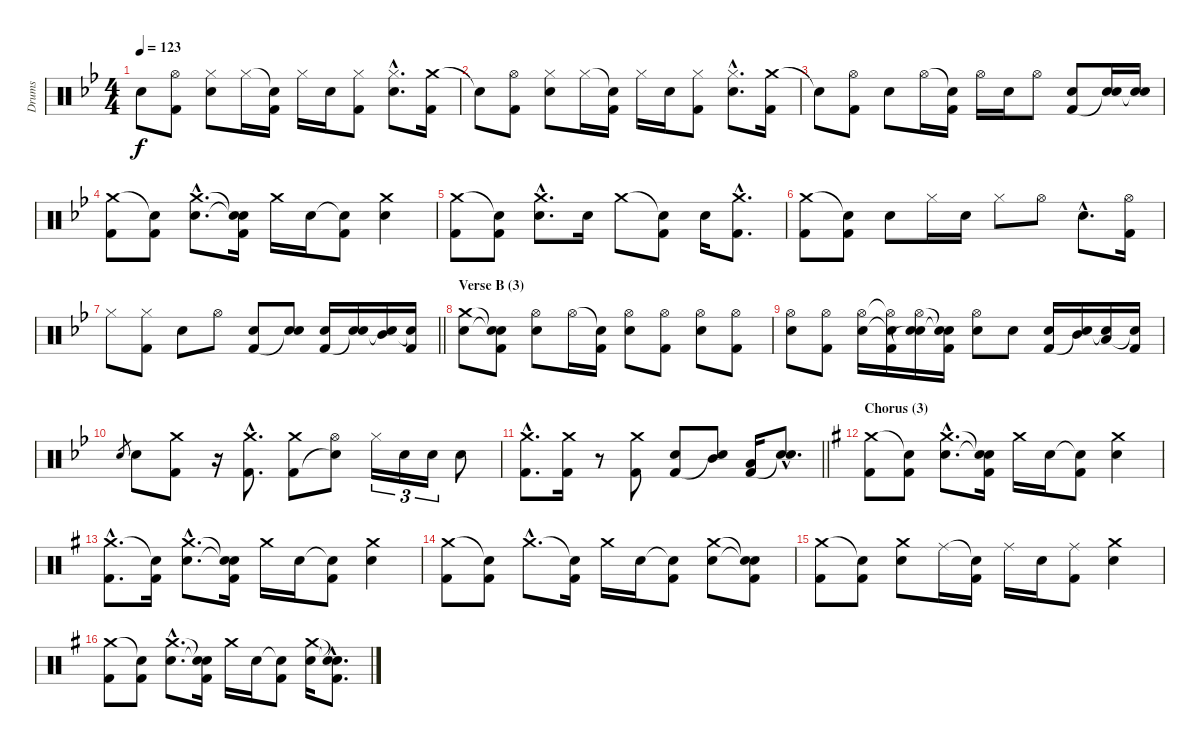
\track ("Drums" "Drums") {instrument percussion}
\staff {score}
\articulation defaults
\ts (4 4)
\tempo 123
\clef neutral
\ks gminor "Snare (hit)"{t}.8{dy f}
("Hi-Hat (open)" "Kick (hit) 2").8 ("Hi-Hat (closed)" "Electric Snare (hit)").8 "Hi-Hat (closed)".16 ("Snare (hit)"{t} "Kick (hit) 2").16 "Hi-Hat (closed)".16 "Electric Snare (hit)".16 ("Hi-Hat (closed)" "Kick (hit) 2").8 ("Hi-Hat (closed)"{hac} "Electric Snare (hit)"{hac}).8{d} ("Crash medium (hit)" "Kick (hit) 2").16 |
"Snare (hit)"{t}.8 ("Hi-Hat (open)" "Kick (hit) 2").8 ("Hi-Hat (closed)" "Electric Snare (hit)").8 "Hi-Hat (closed)".16 ("Snare (hit)"{t} "Kick (hit) 2").16 "Hi-Hat (closed)".16 "Electric Snare (hit)".16 ("Hi-Hat (closed)" "Kick (hit) 2").8 ("Hi-Hat (closed)"{hac} "Electric Snare (hit)"{hac}).8{d} ("Crash medium (hit)" "Kick (hit) 2").16 |
"Snare (hit)"{t}.8 ("Hi-Hat (open)" "Kick (hit) 2").8 "Electric Snare (hit)".8 "Hi-Hat (open)".16 ("Snare (hit)"{t} "Kick (hit) 2").16 "Hi-Hat (open)".16 "Electric Snare (hit)".16 "Hi-Hat (open)".8 ("Electric Snare (hit)" "Kick (hit) 2").8 ("Electric Snare (hit)" "Snare (hit)"{t}).16 ("Electric Snare (hit)" "Snare (hit)"{t}).16 |
("Crash medium (hit)" "Kick (hit) 2").8 ("Snare (hit)"{t} "Kick (hit) 2").8 ("Crash medium (hit)"{hac} "Electric Snare (hit)"{hac}).8{d} ("Snare (hit)"{t} "Snare (hit)"{t} "Kick (hit) 2").16 "Crash medium (hit)".16 "Electric Snare (hit)".16 ("Snare (hit)"{t} "Kick (hit) 2").8 ("Crash medium (hit)" "Electric Snare (hit)").4 |
("Crash medium (hit)" "Kick (hit) 2").8 ("Snare (hit)"{t} "Kick (hit) 2").8 ("Crash medium (hit)"{hac} "Electric Snare (hit)"{hac}).8{d} "Electric Snare (hit)".16 "Crash medium (hit)".8 ("Snare (hit)"{t} "Kick (hit) 2").8 "Electric Snare (hit)".16 ("Crash medium (hit)"{hac} "Kick (hit) 2"{hac}).8{d} |
("Crash medium (hit)" "Kick (hit) 2").8 ("Snare (hit)"{t} "Kick (hit) 2").8 "Electric Snare (hit)".8 "Hi-Hat (closed)".16 "Electric Snare (hit)".16 "Hi-Hat (closed)".8 "Hi-Hat (open)".8 "Electric Snare (hit)"{hac}.8{d} ("Hi-Hat (open)" "Kick (hit) 2").16 |
\barLineRight lightlight "Hi-Hat (closed)".8
("Hi-Hat (closed)" "Kick (hit) 2").8 "Electric Snare (hit)".8 "Hi-Hat (open)".8 ("Electric Snare (hit)" "Kick (hit) 2").8 ("Electric Snare (hit)" "Snare (hit)"{t}).8 ("Electric Snare (hit)" "Kick (hit) 2").16 ("Electric Snare (hit)" "Snare (hit)"{t}).16 ("Mid Tom (hit)" "Snare (hit)"{t}).16 ("Snare (hit)"{t} "Kick (hit) 2").16 |
\section ("" "Verse B (3)")
("Crash medium (hit)" "Electric Snare (hit)").8 ("Snare (hit)"{t} "Snare (hit)"{t} "Kick (hit) 2").8 ("Hi-Hat (open)" "Electric Snare (hit)").8 "Hi-Hat (open)".16 ("Snare (hit)"{t} "Kick (hit) 2").16 ("Hi-Hat (open)" "Electric Snare (hit)").8 ("Hi-Hat (open)" "Kick (hit) 2").8 ("Hi-Hat (open)" "Electric Snare (hit)").8 ("Hi-Hat (open)" "Kick (hit) 2").8 |
("Hi-Hat (open)" "Electric Snare (hit)").8 ("Hi-Hat (open)" "Kick (hit) 2").8 ("Hi-Hat (open)" "Electric Snare (hit)").16 ("Hi-Hat (open)"{t} "Snare (hit)"{t} "Kick (hit) 2").16 ("Hi-Hat (open)" "Electric Snare (hit)" "Snare (hit)"{t}).16 ("Snare (hit)"{t} "Snare (hit)"{t} "Kick (hit) 2").16 ("Hi-Hat (open)" "Electric Snare (hit)").8 "Electric Snare (hit)".8 ("Electric Snare (hit)" "Kick (hit) 2").16 ("Mid Tom (hit)" "Snare (hit)"{t}).16 ("Low Floor Tom (hit)" "Snare (hit)"{t}).16 ("Snare (hit)"{t} "Kick (hit) 2").16 |
"Electric Snare (hit)".8{gr} "Electric Snare (hit)".8 ("Crash medium (hit)" "Kick (hit) 2").8 r.16 ("Crash medium (hit)"{hac} "Kick (hit) 2"{hac}).8{d} ("Crash medium (hit)" "Kick (hit) 2").8 ("Hi-Hat (open)" "Snare (hit)"{t}).8 "Hi-Hat (closed)".16{tu (3 2)} "Electric Snare (hit)".16{tu (3 2)} "Electric Snare (hit)".16{tu (3 2)} "Electric Snare (hit)".8 |
\barLineRight lightlight
("Crash medium (hit)"{hac} "Kick (hit) 2"{hac}).8{d} ("Crash medium (hit)" "Kick (hit) 2").16 r.8 ("Crash medium (hit)" "Kick (hit) 2").8 ("Electric Snare (hit)" "Kick (hit) 2").8 ("Mid Tom (hit)" "Snare (hit)"{t}).8 ("Low Floor Tom (hit)" "Kick (hit) 2").16 ("Electric Snare (hit)"{hac} "Snare (hit)"{hac t}).8{d} |
\section ("" "Chorus (3)")
\ks eminor
("Crash medium (hit)" "Kick (hit) 2").8 ("Snare (hit)"{t} "Kick (hit) 2").8 ("Crash medium (hit)"{hac} "Electric Snare (hit)"{hac}).8{d} ("Snare (hit)"{t} "Snare (hit)"{t} "Kick (hit) 2").16 "Crash medium (hit)".16 "Electric Snare (hit)".16 ("Snare (hit)"{t} "Kick (hit) 2").8 ("Crash medium (hit)" "Electric Snare (hit)").4 |
("Crash medium (hit)"{hac} "Kick (hit) 2"{hac}).8{d} ("Snare (hit)"{t} "Kick (hit) 2").16 ("Crash medium (hit)"{hac} "Electric Snare (hit)"{hac}).8{d} ("Snare (hit)"{t} "Snare (hit)"{t} "Kick (hit) 2").16 "Crash medium (hit)".16 "Electric Snare (hit)".16 ("Snare (hit)"{t} "Kick (hit) 2").8 ("Crash medium (hit)" "Electric Snare (hit)").4 |
("Crash medium (hit)" "Kick (hit) 2").8 ("Snare (hit)"{t} "Kick (hit) 2").8 "Crash medium (hit)"{hac}.8{d} ("Snare (hit)"{t} "Kick (hit) 2").16 "Crash medium (hit)".16 "Electric Snare (hit)".16 ("Snare (hit)"{t} "Kick (hit) 2").8 ("Crash medium (hit)" "Electric Snare (hit)").8 ("Snare (hit)"{t} "Snare (hit)"{t} "Kick (hit) 2").8 |
("Crash medium (hit)" "Kick (hit) 2").8 ("Snare (hit)"{t} "Kick (hit) 2").8 ("Crash medium (hit)" "Electric Snare (hit)").8 "Ride (middle)".16 ("Snare (hit)"{t} "Kick (hit) 2").16 "Ride (middle)".16 "Electric Snare (hit)".16 ("Ride (middle)" "Kick (hit) 2").8 ("Crash medium (hit)" "Electric Snare (hit)").4 |
("Crash medium (hit)" "Kick (hit) 2").8 ("Snare (hit)"{t} "Kick (hit) 2").8 ("Crash medium (hit)"{hac} "Electric Snare (hit)"{hac}).8{d} ("Snare (hit)"{t} "Snare (hit)"{t} "Kick (hit) 2").16 "Crash medium (hit)".16 "Electric Snare (hit)".16 ("Snare (hit)"{t} "Kick (hit) 2").8 ("Crash medium (hit)" "Electric Snare (hit)").16 ("Snare (hit)"{hac t} "Snare (hit)"{hac t} "Kick (hit) 2"{hac}).8{d}
